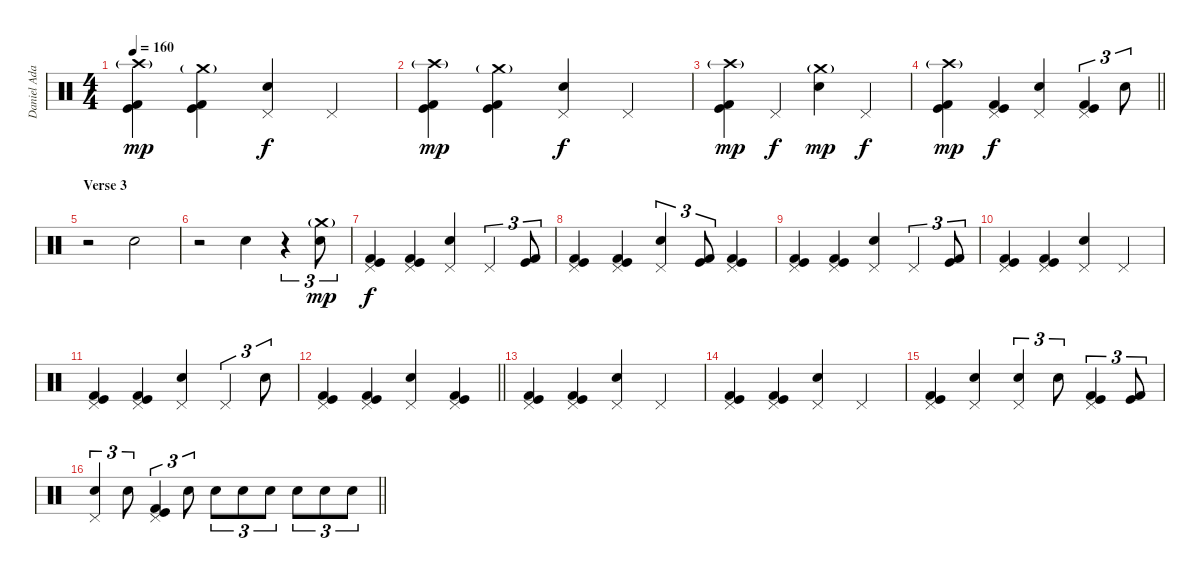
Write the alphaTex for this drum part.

\track ("Daniel Adair" "Daniel Ada") {instrument percussion}
\staff {score}
\articulation defaults
\ts (4 4)
\tempo 160
\clef neutral
\ks c
("Crash high (hit)"{g} "Kick (hit)" "Kick (hit) 2").4{dy mp} ("Crash medium (hit)"{g} "Kick (hit)" "Kick (hit) 2").4 ("Pedal Hi-Hat (hit)" "Electric Snare (hit)").4{dy f} "Pedal Hi-Hat (hit)".4 |
("Crash high (hit)"{g} "Kick (hit)" "Kick (hit) 2").4{dy mp} ("Crash medium (hit)"{g} "Kick (hit)" "Kick (hit) 2").4 ("Pedal Hi-Hat (hit)" "Electric Snare (hit)").4{dy f} "Pedal Hi-Hat (hit)".4 |
("Crash high (hit)"{g} "Kick (hit)" "Kick (hit) 2").4{dy mp} "Pedal Hi-Hat (hit)".4{dy f} ("Crash medium (hit)"{g} "Electric Snare (hit)").4{dy mp} "Pedal Hi-Hat (hit)".4{dy f} |
\barLineRight lightlight
("Crash high (hit)"{g} "Kick (hit)" "Kick (hit) 2").4{dy mp} ("Pedal Hi-Hat (hit)" "Kick (hit)" "Kick (hit) 2").4{dy f} ("Pedal Hi-Hat (hit)" "Electric Snare (hit)").4 ("Pedal Hi-Hat (hit)" "Kick (hit)" "Kick (hit) 2").4{tu (3 2)} "Electric Snare (hit)".8{tu (3 2)} |
\section ("" "Verse 3")
r.2 "Hand Clap (hit)".2 |
r.2 "Hand Clap (hit)".4 r.4{tu (3 2)} ("Crash medium (hit)"{g} "Electric Snare (hit)").8{tu (3 2) dy mp} |
("Pedal Hi-Hat (hit)" "Kick (hit)" "Kick (hit) 2").4{dy f} ("Pedal Hi-Hat (hit)" "Kick (hit)" "Kick (hit) 2").4 ("Pedal Hi-Hat (hit)" "Electric Snare (hit)").4 "Pedal Hi-Hat (hit)".4{tu (3 2)} ("Kick (hit)" "Kick (hit) 2").8{tu (3 2)} |
("Pedal Hi-Hat (hit)" "Kick (hit)" "Kick (hit) 2").4 ("Pedal Hi-Hat (hit)" "Kick (hit)" "Kick (hit) 2").4 ("Pedal Hi-Hat (hit)" "Electric Snare (hit)").4{tu (3 2)} ("Kick (hit)" "Kick (hit) 2").8{tu (3 2)} ("Pedal Hi-Hat (hit)" "Kick (hit)" "Kick (hit) 2").4 |
("Pedal Hi-Hat (hit)" "Kick (hit)" "Kick (hit) 2").4 ("Pedal Hi-Hat (hit)" "Kick (hit)" "Kick (hit) 2").4 ("Pedal Hi-Hat (hit)" "Electric Snare (hit)").4 "Pedal Hi-Hat (hit)".4{tu (3 2)} ("Kick (hit)" "Kick (hit) 2").8{tu (3 2)} |
("Pedal Hi-Hat (hit)" "Kick (hit)" "Kick (hit) 2").4 ("Pedal Hi-Hat (hit)" "Kick (hit)" "Kick (hit) 2").4 ("Pedal Hi-Hat (hit)" "Electric Snare (hit)").4 "Pedal Hi-Hat (hit)".4 |
("Pedal Hi-Hat (hit)" "Kick (hit)" "Kick (hit) 2").4 ("Pedal Hi-Hat (hit)" "Kick (hit)" "Kick (hit) 2").4 ("Pedal Hi-Hat (hit)" "Electric Snare (hit)").4 "Pedal Hi-Hat (hit)".4{tu (3 2)} "Electric Snare (hit)".8{tu (3 2)} |
\barLineRight lightlight
("Pedal Hi-Hat (hit)" "Kick (hit)" "Kick (hit) 2").4 ("Pedal Hi-Hat (hit)" "Kick (hit)" "Kick (hit) 2").4 ("Pedal Hi-Hat (hit)" "Electric Snare (hit)").4 ("Pedal Hi-Hat (hit)" "Kick (hit)" "Kick (hit) 2").4 |
("Pedal Hi-Hat (hit)" "Kick (hit)" "Kick (hit) 2").4 ("Pedal Hi-Hat (hit)" "Kick (hit)" "Kick (hit) 2").4 ("Pedal Hi-Hat (hit)" "Electric Snare (hit)").4 "Pedal Hi-Hat (hit)".4 |
("Pedal Hi-Hat (hit)" "Kick (hit)" "Kick (hit) 2").4 ("Pedal Hi-Hat (hit)" "Kick (hit)" "Kick (hit) 2").4 ("Pedal Hi-Hat (hit)" "Electric Snare (hit)").4 "Pedal Hi-Hat (hit)".4 |
("Pedal Hi-Hat (hit)" "Kick (hit)" "Kick (hit) 2").4 ("Pedal Hi-Hat (hit)" "Electric Snare (hit)").4 ("Pedal Hi-Hat (hit)" "Electric Snare (hit)").4{tu (3 2)} "Electric Snare (hit)".8{tu (3 2)} ("Pedal Hi-Hat (hit)" "Kick (hit)" "Kick (hit) 2").4{tu (3 2)} ("Kick (hit)" "Kick (hit) 2").8{tu (3 2)} |
\barLineRight lightlight
("Pedal Hi-Hat (hit)" "Electric Snare (hit)").4{tu (3 2)} "Electric Snare (hit)".8{tu (3 2)} ("Pedal Hi-Hat (hit)" "Kick (hit)" "Kick (hit) 2").4{tu (3 2)} "Electric Snare (hit)".8{tu (3 2)} "Electric Snare (hit)".8{tu (3 2)} "Electric Snare (hit)".8{tu (3 2)} "Electric Snare (hit)".8{tu (3 2)} "Electric Snare (hit)".8{tu (3 2)} "Electric Snare (hit)".8{tu (3 2)} "Electric Snare (hit)".8{tu (3 2)}
